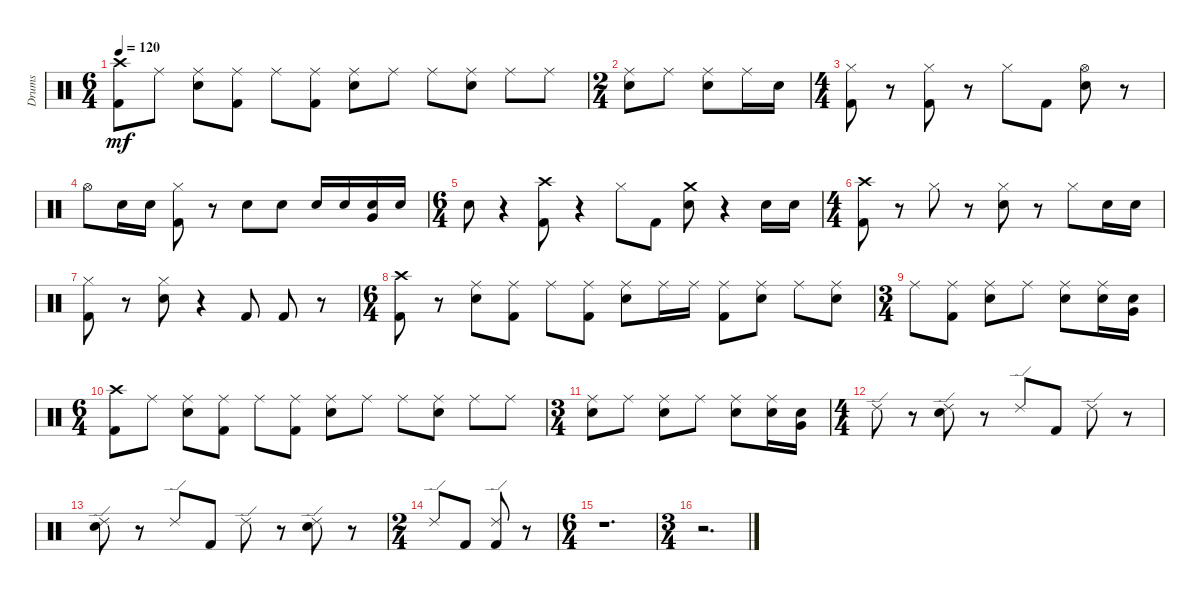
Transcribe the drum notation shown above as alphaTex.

\track ("Drums" "Drums") {instrument percussion}
\staff {score}
\articulation defaults
\ts (6 4)
\tempo 120
\clef neutral
\ks c
("Kick (hit) 2" "Crash high (hit)").8{dy mf} "Ride (middle)".8 ("Snare (hit) 2" "Ride (middle)").8 ("Kick (hit) 2" "Ride (middle)").8 "Ride (middle)".8 ("Kick (hit) 2" "Ride (middle)").8 ("Snare (hit) 2" "Ride (middle)").8 "Ride (middle)".8 "Ride (middle)".8 ("Snare (hit) 2" "Ride (middle)").8 "Ride (middle)".8 "Ride (middle)".8 |
\ts (2 4)
("Snare (hit) 2" "Ride (middle)").8 "Ride (middle)".8 ("Snare (hit) 2" "Ride (middle)").8 "Ride (middle)".16 "Snare (hit) 2".16 |
\ts (4 4)
("Kick (hit) 2" "Hi-Hat (closed)").8 r.8 ("Kick (hit) 2" "Hi-Hat (closed)").8 r.8 "Hi-Hat (closed)".8 "Kick (hit) 2".8 ("Snare (hit) 2" "Hi-Hat (open)").8 r.8 |
"Hi-Hat (open)".8 "Snare (hit) 2".16 "Snare (hit) 2".16 ("Kick (hit) 2" "Hi-Hat (closed)").8 r.8 "Snare (hit) 2".8 "Snare (hit) 2".8 "Snare (hit) 2".16 "Snare (hit) 2".16 ("Snare (hit) 2" "Very Low Tom (hit)").16 "Snare (hit) 2".16 |
\ts (6 4)
"Snare (hit) 2".8 r.4 ("Crash high (hit)" "Kick (hit) 2").8 r.4 "Hi-Hat (closed)".8 "Kick (hit) 2".8 ("Crash medium (hit)" "Snare (hit) 2").8 r.4 "Snare (hit) 2".16 "Snare (hit) 2".16 |
\ts (4 4)
("Kick (hit) 2" "Crash high (hit)").8 r.8 "Hi-Hat (closed)".8 r.8 ("Snare (hit) 2" "Hi-Hat (closed)").8 r.8 "Hi-Hat (closed)".8 "Snare (hit) 2".16 "Snare (hit) 2".16 |
("Kick (hit) 2" "Hi-Hat (closed)").8 r.8 ("Snare (hit) 2" "Hi-Hat (closed)").8 r.4 "Kick (hit) 2".8 "Kick (hit) 2".8 r.8 |
\ts (6 4)
("Kick (hit) 2" "Crash high (hit)").8 r.8 ("Snare (hit) 2" "Ride (middle)").8 ("Kick (hit) 2" "Ride (middle)").8 "Ride (middle)".8 ("Kick (hit) 2" "Ride (middle)").8 ("Snare (hit) 2" "Ride (middle)").8 "Ride (middle)".16 "Ride (middle)".16 ("Kick (hit) 2" "Ride (middle)").8 ("Snare (hit) 2" "Ride (middle)").8 "Ride (middle)".8 ("Snare (hit) 2" "Ride (middle)").8 |
\ts (3 4)
"Ride (middle)".8 ("Kick (hit) 2" "Ride (middle)").8 ("Snare (hit) 2" "Ride (middle)").8 "Ride (middle)".8 ("Snare (hit) 2" "Ride (middle)").8 ("Snare (hit) 2" "Ride (middle)").16 ("Snare (hit) 2" "Very Low Tom (hit)").16 |
\ts (6 4)
("Kick (hit) 2" "Crash high (hit)").8 "Ride (middle)".8 ("Snare (hit) 2" "Ride (middle)").8 ("Kick (hit) 2" "Ride (middle)").8 "Ride (middle)".8 ("Kick (hit) 2" "Ride (middle)").8 ("Snare (hit) 2" "Ride (middle)").8 "Ride (middle)".8 "Ride (middle)".8 ("Snare (hit) 2" "Ride (middle)").8 "Ride (middle)".8 "Ride (middle)".8 |
\ts (3 4)
("Snare (hit) 2" "Ride (middle)").8 "Ride (middle)".8 ("Snare (hit) 2" "Ride (middle)").8 "Ride (middle)".8 ("Snare (hit) 2" "Ride (middle)").8 ("Snare (hit) 2" "Ride (middle)").16 ("Snare (hit) 2" "Very Low Tom (hit)").16 |
\ts (4 4)
"Ride (edge) 2".8 r.8 ("Electric Snare (hit)" "Ride (edge) 2").8 r.8 "Ride (edge) 2".8 "Kick (hit) 2".8 "Ride (edge) 2".8 r.8 |
("Electric Snare (hit)" "Ride (edge) 2").8 r.8 "Ride (edge) 2".8 "Kick (hit) 2".8 "Ride (edge) 2".8 r.8 ("Electric Snare (hit)" "Ride (edge) 2").8 r.8 |
\ts (2 4)
"Ride (edge) 2".8 "Kick (hit) 2".8 ("Kick (hit) 2" "Ride (edge) 2").8 r.8 |
\ts (6 4)
r.1{d} |
\ts (3 4)
r.2{d}
